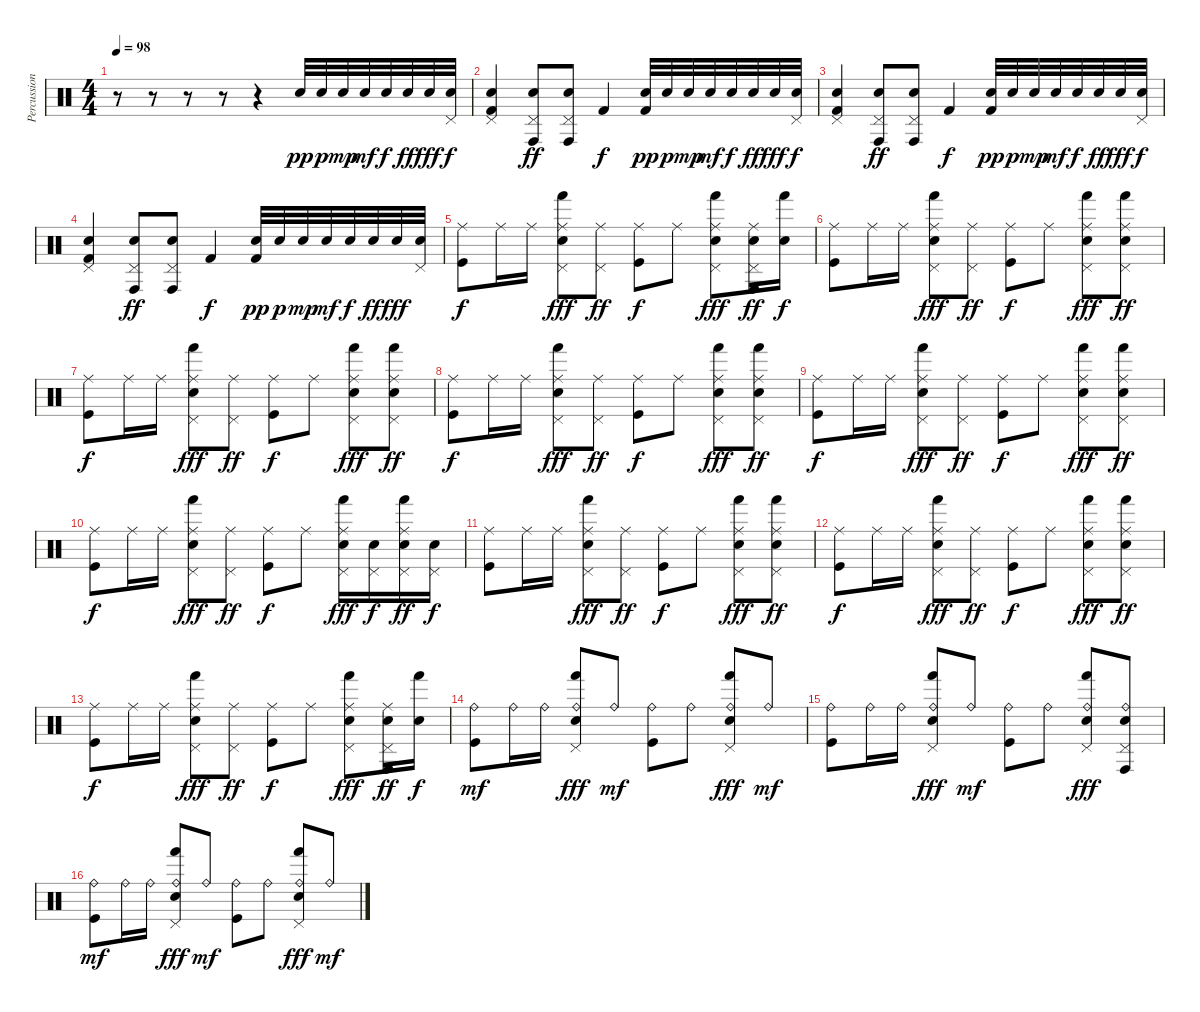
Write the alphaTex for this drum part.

\track ("Percussion" "Percussion") {instrument percussion}
\staff {score}
\articulation defaults
\ts (4 4)
\tempo 98
\clef neutral
\ks c
r.8{dy pp} r.8 r.8 r.8 r.4 "Snare (hit) 2".32 "Snare (hit) 2".32{dy p} "Snare (hit) 2".32{dy mp} "Snare (hit) 2".32{dy mf} "Snare (hit) 2".32{dy f} "Snare (hit) 2".32{dy ff} "Snare (hit) 2".32{dy fff} ("Pedal Hi-Hat (hit)" "Snare (hit) 2").32{dy f} |
("Pedal Hi-Hat (hit)" "Electric Snare (hit)" "Kick (hit) 2").4 ("Pedal Hi-Hat (hit)" "Conga high (hit)" "Electric Snare (hit)").8{dy ff} ("Pedal Hi-Hat (hit)" "Conga high (hit)" "Electric Snare (hit)").8 "Kick (hit) 2".4{dy f} ("Snare (hit) 2" "Kick (hit) 2").32{dy pp} "Snare (hit) 2".32{dy p} "Snare (hit) 2".32{dy mp} "Snare (hit) 2".32{dy mf} "Snare (hit) 2".32{dy f} "Snare (hit) 2".32{dy ff} "Snare (hit) 2".32{dy fff} ("Pedal Hi-Hat (hit)" "Snare (hit) 2").32{dy f} |
("Pedal Hi-Hat (hit)" "Electric Snare (hit)" "Kick (hit) 2").4 ("Pedal Hi-Hat (hit)" "Conga high (hit)" "Electric Snare (hit)").8{dy ff} ("Pedal Hi-Hat (hit)" "Conga high (hit)" "Electric Snare (hit)").8 "Kick (hit) 2".4{dy f} ("Snare (hit) 2" "Kick (hit) 2").32{dy pp} "Snare (hit) 2".32{dy p} "Snare (hit) 2".32{dy mp} "Snare (hit) 2".32{dy mf} "Snare (hit) 2".32{dy f} "Snare (hit) 2".32{dy ff} "Snare (hit) 2".32{dy fff} ("Pedal Hi-Hat (hit)" "Snare (hit) 2").32{dy f} |
("Pedal Hi-Hat (hit)" "Electric Snare (hit)" "Kick (hit) 2").4 ("Pedal Hi-Hat (hit)" "Conga high (hit)" "Electric Snare (hit)").8{dy ff} ("Pedal Hi-Hat (hit)" "Conga high (hit)" "Electric Snare (hit)").8 "Kick (hit) 2".4{dy f} ("Snare (hit) 2" "Kick (hit) 2").32{dy pp} "Snare (hit) 2".32{dy p} "Snare (hit) 2".32{dy mp} "Snare (hit) 2".32{dy mf} "Snare (hit) 2".32{dy f} "Snare (hit) 2".32{dy ff} "Snare (hit) 2".32{dy fff} ("Pedal Hi-Hat (hit)" "Snare (hit) 2").32 |
("Ride (middle)" "Kick (hit)").8{dy f} "Ride (middle)".16 "Ride (middle)".16 ("Ride (middle)" "Pedal Hi-Hat (hit)" "Electric Snare (hit)" "Hand (hit)").8{dy fff} ("Ride (middle)" "Pedal Hi-Hat (hit)").8{dy ff} ("Ride (middle)" "Kick (hit)").8{dy f} "Ride (middle)".8 ("Ride (middle)" "Pedal Hi-Hat (hit)" "Electric Snare (hit)" "Hand (hit)").8{dy fff} ("Ride (middle)" "Pedal Hi-Hat (hit)" "Electric Snare (hit)" "Conga high (hit)").16{dy ff} ("Electric Snare (hit)" "Hand (hit)").16{dy f} |
("Ride (middle)" "Kick (hit)").8 "Ride (middle)".16 "Ride (middle)".16 ("Ride (middle)" "Pedal Hi-Hat (hit)" "Electric Snare (hit)" "Hand (hit)").8{dy fff} ("Ride (middle)" "Pedal Hi-Hat (hit)").8{dy ff} ("Ride (middle)" "Kick (hit)").8{dy f} "Ride (middle)".8 ("Ride (middle)" "Pedal Hi-Hat (hit)" "Electric Snare (hit)" "Hand (hit)").8{dy fff} ("Ride (middle)" "Pedal Hi-Hat (hit)" "Electric Snare (hit)" "Hand (hit)").8{dy ff} |
("Ride (middle)" "Kick (hit)").8{dy f} "Ride (middle)".16 "Ride (middle)".16 ("Ride (middle)" "Pedal Hi-Hat (hit)" "Electric Snare (hit)" "Hand (hit)").8{dy fff} ("Ride (middle)" "Pedal Hi-Hat (hit)").8{dy ff} ("Ride (middle)" "Kick (hit)").8{dy f} "Ride (middle)".8 ("Ride (middle)" "Pedal Hi-Hat (hit)" "Electric Snare (hit)" "Hand (hit)").8{dy fff} ("Ride (middle)" "Pedal Hi-Hat (hit)" "Electric Snare (hit)" "Hand (hit)").8{dy ff} |
("Ride (middle)" "Kick (hit)").8{dy f} "Ride (middle)".16 "Ride (middle)".16 ("Ride (middle)" "Pedal Hi-Hat (hit)" "Electric Snare (hit)" "Hand (hit)").8{dy fff} ("Ride (middle)" "Pedal Hi-Hat (hit)").8{dy ff} ("Ride (middle)" "Kick (hit)").8{dy f} "Ride (middle)".8 ("Ride (middle)" "Pedal Hi-Hat (hit)" "Electric Snare (hit)" "Hand (hit)").8{dy fff} ("Ride (middle)" "Pedal Hi-Hat (hit)" "Electric Snare (hit)" "Hand (hit)").8{dy ff} |
("Ride (middle)" "Kick (hit)").8{dy f} "Ride (middle)".16 "Ride (middle)".16 ("Ride (middle)" "Pedal Hi-Hat (hit)" "Electric Snare (hit)" "Hand (hit)").8{dy fff} ("Ride (middle)" "Pedal Hi-Hat (hit)").8{dy ff} ("Ride (middle)" "Kick (hit)").8{dy f} "Ride (middle)".8 ("Ride (middle)" "Pedal Hi-Hat (hit)" "Electric Snare (hit)" "Hand (hit)").8{dy fff} ("Ride (middle)" "Pedal Hi-Hat (hit)" "Electric Snare (hit)" "Hand (hit)").8{dy ff} |
("Ride (middle)" "Kick (hit)").8{dy f} "Ride (middle)".16 "Ride (middle)".16 ("Ride (middle)" "Pedal Hi-Hat (hit)" "Electric Snare (hit)" "Hand (hit)").8{dy fff} ("Ride (middle)" "Pedal Hi-Hat (hit)").8{dy ff} ("Ride (middle)" "Kick (hit)").8{dy f} "Ride (middle)".8 ("Ride (middle)" "Pedal Hi-Hat (hit)" "Electric Snare (hit)" "Hand (hit)").16{dy fff} ("Pedal Hi-Hat (hit)" "Electric Snare (hit)").16{dy f} ("Ride (middle)" "Pedal Hi-Hat (hit)" "Electric Snare (hit)" "Hand (hit)").16{dy ff} ("Pedal Hi-Hat (hit)" "Electric Snare (hit)").16{dy f} |
("Ride (middle)" "Kick (hit)").8 "Ride (middle)".16 "Ride (middle)".16 ("Ride (middle)" "Pedal Hi-Hat (hit)" "Electric Snare (hit)" "Hand (hit)").8{dy fff} ("Ride (middle)" "Pedal Hi-Hat (hit)").8{dy ff} ("Ride (middle)" "Kick (hit)").8{dy f} "Ride (middle)".8 ("Ride (middle)" "Pedal Hi-Hat (hit)" "Electric Snare (hit)" "Hand (hit)").8{dy fff} ("Ride (middle)" "Pedal Hi-Hat (hit)" "Electric Snare (hit)" "Hand (hit)").8{dy ff} |
("Ride (middle)" "Kick (hit)").8{dy f} "Ride (middle)".16 "Ride (middle)".16 ("Ride (middle)" "Pedal Hi-Hat (hit)" "Electric Snare (hit)" "Hand (hit)").8{dy fff} ("Ride (middle)" "Pedal Hi-Hat (hit)").8{dy ff} ("Ride (middle)" "Kick (hit)").8{dy f} "Ride (middle)".8 ("Ride (middle)" "Pedal Hi-Hat (hit)" "Electric Snare (hit)" "Hand (hit)").8{dy fff} ("Ride (middle)" "Pedal Hi-Hat (hit)" "Electric Snare (hit)" "Hand (hit)").8{dy ff} |
("Ride (middle)" "Kick (hit)").8{dy f} "Ride (middle)".16 "Ride (middle)".16 ("Ride (middle)" "Pedal Hi-Hat (hit)" "Electric Snare (hit)" "Hand (hit)").8{dy fff} ("Ride (middle)" "Pedal Hi-Hat (hit)").8{dy ff} ("Ride (middle)" "Kick (hit)").8{dy f} "Ride (middle)".8 ("Ride (middle)" "Pedal Hi-Hat (hit)" "Electric Snare (hit)" "Hand (hit)").8{dy fff} ("Ride (middle)" "Pedal Hi-Hat (hit)" "Electric Snare (hit)" "Conga high (hit)").16{dy ff} ("Electric Snare (hit)" "Hand (hit)").16{dy f} |
("Ride (bell)" "Kick (hit)").8{dy mf} "Ride (bell)".16 "Ride (bell)".16 ("Ride (bell)" "Pedal Hi-Hat (hit)" "Electric Snare (hit)" "Hand (hit)").8{dy fff} "Ride (bell)".8{dy mf} ("Ride (bell)" "Kick (hit)").8 "Ride (bell)".8 ("Ride (bell)" "Pedal Hi-Hat (hit)" "Electric Snare (hit)" "Hand (hit)").8{dy fff} "Ride (bell)".8{dy mf} |
("Ride (bell)" "Kick (hit)").8 "Ride (bell)".16 "Ride (bell)".16 ("Ride (bell)" "Pedal Hi-Hat (hit)" "Electric Snare (hit)" "Hand (hit)").8{dy fff} "Ride (bell)".8{dy mf} ("Ride (bell)" "Kick (hit)").8 "Ride (bell)".8 ("Ride (bell)" "Pedal Hi-Hat (hit)" "Electric Snare (hit)" "Hand (hit)").8{dy fff} ("Ride (bell)" "Pedal Hi-Hat (hit)" "Electric Snare (hit)" "Conga high (hit)").8 |
("Ride (bell)" "Kick (hit)").8{dy mf} "Ride (bell)".16 "Ride (bell)".16 ("Ride (bell)" "Pedal Hi-Hat (hit)" "Electric Snare (hit)" "Hand (hit)").8{dy fff} "Ride (bell)".8{dy mf} ("Ride (bell)" "Kick (hit)").8 "Ride (bell)".8 ("Ride (bell)" "Pedal Hi-Hat (hit)" "Electric Snare (hit)" "Hand (hit)").8{dy fff} "Ride (bell)".8{dy mf}
